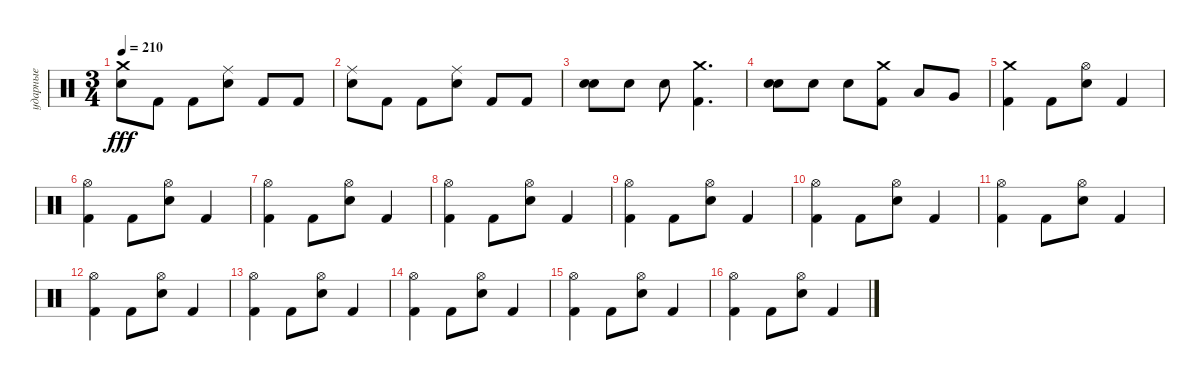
\track ("ударные" "ударные") {instrument percussion}
\staff {score}
\articulation defaults
\ts (3 4)
\tempo 210
\clef neutral
\ks c
("Crash medium (hit)" "Snare (hit) 2").8{dy fff} "Kick (hit) 2".8 "Kick (hit) 2".8 ("Ride (middle)" "Snare (hit) 2").8 "Kick (hit) 2".8 "Kick (hit) 2".8 |
("Ride (middle)" "Snare (hit) 2").8 "Kick (hit) 2".8 "Kick (hit) 2".8 ("Ride (middle)" "Snare (hit) 2").8 "Kick (hit) 2".8 "Kick (hit) 2".8 |
("Snare (hit) 2" "Snare (hit) 2").8{bd 60} "Snare (hit) 2".8 "Snare (hit) 2".8 ("Crash medium (hit)" "Kick (hit) 2").4{d} |
("Snare (hit) 2" "Snare (hit) 2").8{bd 60} "Snare (hit) 2".8 "Snare (hit) 2".8 ("Crash medium (hit)" "Kick (hit) 2").8 "Low Tom (hit)".8 "Very Low Tom (hit)".8 |
("Crash medium (hit)" "Kick (hit) 2").4 "Kick (hit) 2".8 ("Hi-Hat (open)" "Snare (hit) 2").8 "Kick (hit) 2".4 |
("Hi-Hat (open)" "Kick (hit) 2").4 "Kick (hit) 2".8 ("Hi-Hat (open)" "Snare (hit) 2").8 "Kick (hit) 2".4 |
("Hi-Hat (open)" "Kick (hit) 2").4 "Kick (hit) 2".8 ("Hi-Hat (open)" "Snare (hit) 2").8 "Kick (hit) 2".4 |
("Hi-Hat (open)" "Kick (hit) 2").4 "Kick (hit) 2".8 ("Hi-Hat (open)" "Snare (hit) 2").8 "Kick (hit) 2".4 |
("Hi-Hat (open)" "Kick (hit) 2").4 "Kick (hit) 2".8 ("Hi-Hat (open)" "Snare (hit) 2").8 "Kick (hit) 2".4 |
("Hi-Hat (open)" "Kick (hit) 2").4 "Kick (hit) 2".8 ("Hi-Hat (open)" "Snare (hit) 2").8 "Kick (hit) 2".4 |
("Hi-Hat (open)" "Kick (hit) 2").4 "Kick (hit) 2".8 ("Hi-Hat (open)" "Snare (hit) 2").8 "Kick (hit) 2".4 |
("Hi-Hat (open)" "Kick (hit) 2").4 "Kick (hit) 2".8 ("Hi-Hat (open)" "Snare (hit) 2").8 "Kick (hit) 2".4 |
("Hi-Hat (open)" "Kick (hit) 2").4 "Kick (hit) 2".8 ("Hi-Hat (open)" "Snare (hit) 2").8 "Kick (hit) 2".4 |
("Hi-Hat (open)" "Kick (hit) 2").4 "Kick (hit) 2".8 ("Hi-Hat (open)" "Snare (hit) 2").8 "Kick (hit) 2".4 |
("Hi-Hat (open)" "Kick (hit) 2").4 "Kick (hit) 2".8 ("Hi-Hat (open)" "Snare (hit) 2").8 "Kick (hit) 2".4 |
("Hi-Hat (open)" "Kick (hit) 2").4 "Kick (hit) 2".8 ("Hi-Hat (open)" "Snare (hit) 2").8 "Kick (hit) 2".4
